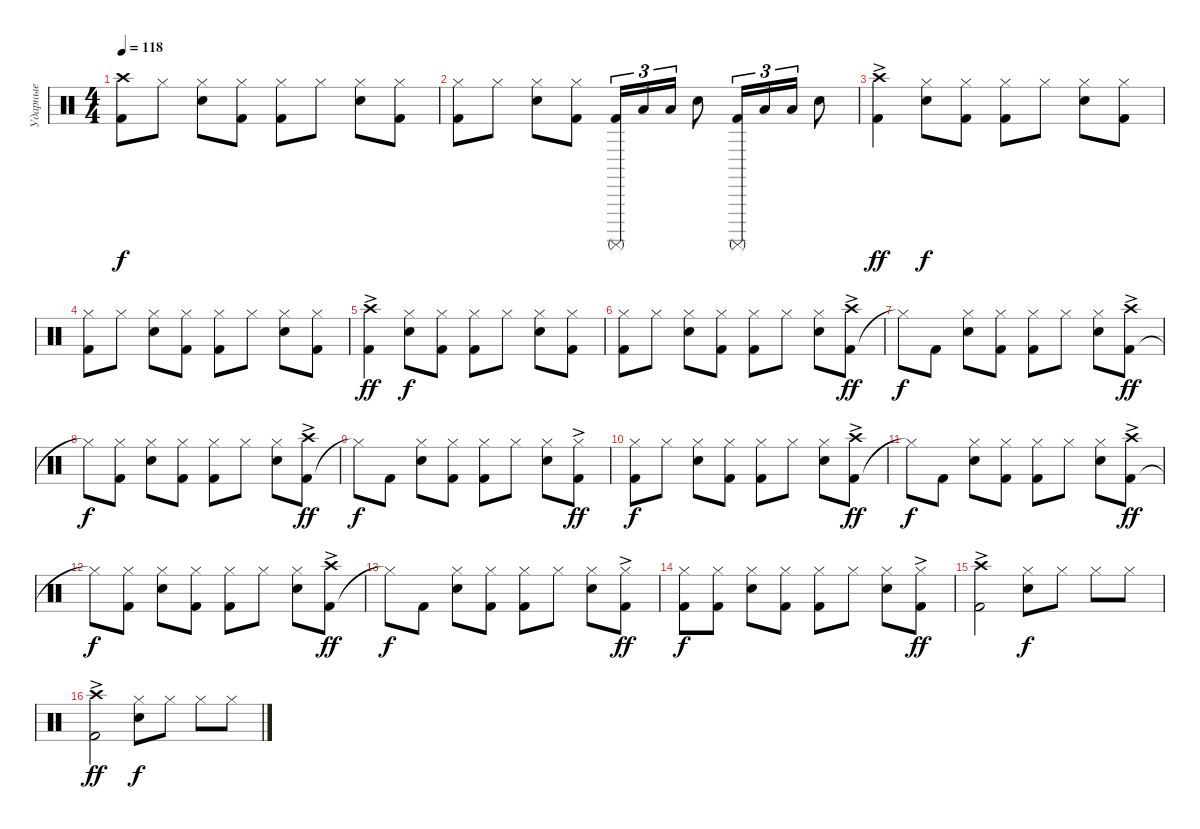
\track ("Ударные" "Ударные") {instrument percussion}
\staff
\articulation defaults
\ts (4 4)
\tempo 118
\clef neutral
\ks c
("Kick (hit) 2" "Crash high (hit)").8{dy f} "Hi-Hat (closed)".8 ("Snare (hit) 2" "Hi-Hat (closed)").8 ("Kick (hit) 2" "Hi-Hat (closed)").8 ("Kick (hit) 2" "Hi-Hat (closed)").8 "Hi-Hat (closed)".8 ("Snare (hit) 2" "Hi-Hat (closed)").8 ("Kick (hit) 2" "Hi-Hat (closed)").8 |
("Kick (hit) 2" "Hi-Hat (closed)").8 "Hi-Hat (closed)".8 ("Snare (hit) 2" "Hi-Hat (closed)").8 ("Kick (hit) 2" "Hi-Hat (closed)").8 ("Kick (hit) 2" "Surdo (mute)").16{tu (3 2)} "Low Floor Tom (hit)".16{tu (3 2)} "Low Floor Tom (hit)".16{tu (3 2)} "Snare (hit) 2".8 ("Kick (hit) 2" "Surdo (mute)").16{tu (3 2)} "Low Floor Tom (hit)".16{tu (3 2)} "Low Floor Tom (hit)".16{tu (3 2)} "Snare (hit) 2".8 |
("Kick (hit) 2" "Crash high (hit)"{ac}).4{dy ff} ("Snare (hit) 2" "Hi-Hat (closed)").8{dy f} ("Kick (hit) 2" "Hi-Hat (closed)").8 ("Kick (hit) 2" "Hi-Hat (closed)").8 "Hi-Hat (closed)".8 ("Snare (hit) 2" "Hi-Hat (closed)").8 ("Kick (hit) 2" "Hi-Hat (closed)").8 |
("Kick (hit) 2" "Hi-Hat (closed)").8 "Hi-Hat (closed)".8 ("Snare (hit) 2" "Hi-Hat (closed)").8 ("Kick (hit) 2" "Hi-Hat (closed)").8 ("Kick (hit) 2" "Hi-Hat (closed)").8 "Hi-Hat (closed)".8 ("Snare (hit) 2" "Hi-Hat (closed)").8 ("Kick (hit) 2" "Hi-Hat (closed)").8 |
("Kick (hit) 2" "Crash high (hit)"{ac}).4{dy ff} ("Snare (hit) 2" "Hi-Hat (closed)").8{dy f} ("Kick (hit) 2" "Hi-Hat (closed)").8 ("Kick (hit) 2" "Hi-Hat (closed)").8 "Hi-Hat (closed)".8 ("Snare (hit) 2" "Hi-Hat (closed)").8 ("Kick (hit) 2" "Hi-Hat (closed)").8 |
("Kick (hit) 2" "Hi-Hat (closed)").8 "Hi-Hat (closed)".8 ("Snare (hit) 2" "Hi-Hat (closed)").8 ("Kick (hit) 2" "Hi-Hat (closed)").8 ("Kick (hit) 2" "Hi-Hat (closed)").8 "Hi-Hat (closed)".8 ("Snare (hit) 2" "Hi-Hat (closed)").8 ("Kick (hit) 2" "Crash high (hit)"{ac}).8{dy ff} |
"Hi-Hat (closed)"{t}.8{dy f} "Kick (hit) 2".8 ("Snare (hit) 2" "Hi-Hat (closed)").8 ("Kick (hit) 2" "Hi-Hat (closed)").8 ("Kick (hit) 2" "Hi-Hat (closed)").8 "Hi-Hat (closed)".8 ("Snare (hit) 2" "Hi-Hat (closed)").8 ("Kick (hit) 2" "Crash high (hit)"{ac}).8{dy ff} |
"Hi-Hat (closed)"{t}.8{dy f} ("Kick (hit) 2" "Hi-Hat (closed)").8 ("Snare (hit) 2" "Hi-Hat (closed)").8 ("Kick (hit) 2" "Hi-Hat (closed)").8 ("Kick (hit) 2" "Hi-Hat (closed)").8 "Hi-Hat (closed)".8 ("Snare (hit) 2" "Hi-Hat (closed)").8 ("Kick (hit) 2" "Crash high (hit)"{ac}).8{dy ff} |
"Hi-Hat (closed)"{t}.8{dy f} "Kick (hit) 2".8 ("Snare (hit) 2" "Hi-Hat (closed)").8 ("Kick (hit) 2" "Hi-Hat (closed)").8 ("Kick (hit) 2" "Hi-Hat (closed)").8 "Hi-Hat (closed)".8 ("Snare (hit) 2" "Hi-Hat (closed)").8 ("Kick (hit) 2" "Hi-Hat (closed)"{ac}).8{dy ff} |
("Kick (hit) 2" "Hi-Hat (closed)").8{dy f} "Hi-Hat (closed)".8 ("Snare (hit) 2" "Hi-Hat (closed)").8 ("Kick (hit) 2" "Hi-Hat (closed)").8 ("Kick (hit) 2" "Hi-Hat (closed)").8 "Hi-Hat (closed)".8 ("Snare (hit) 2" "Hi-Hat (closed)").8 ("Kick (hit) 2" "Crash high (hit)"{ac}).8{dy ff} |
"Hi-Hat (closed)"{t}.8{dy f} "Kick (hit) 2".8 ("Snare (hit) 2" "Hi-Hat (closed)").8 ("Kick (hit) 2" "Hi-Hat (closed)").8 ("Kick (hit) 2" "Hi-Hat (closed)").8 "Hi-Hat (closed)".8 ("Snare (hit) 2" "Hi-Hat (closed)").8 ("Kick (hit) 2" "Crash high (hit)"{ac}).8{dy ff} |
"Hi-Hat (closed)"{t}.8{dy f} ("Kick (hit) 2" "Hi-Hat (closed)").8 ("Snare (hit) 2" "Hi-Hat (closed)").8 ("Kick (hit) 2" "Hi-Hat (closed)").8 ("Kick (hit) 2" "Hi-Hat (closed)").8 "Hi-Hat (closed)".8 ("Snare (hit) 2" "Hi-Hat (closed)").8 ("Kick (hit) 2" "Crash high (hit)"{ac}).8{dy ff} |
"Hi-Hat (closed)"{t}.8{dy f} "Kick (hit) 2".8 ("Snare (hit) 2" "Hi-Hat (closed)").8 ("Kick (hit) 2" "Hi-Hat (closed)").8 ("Kick (hit) 2" "Hi-Hat (closed)").8 "Hi-Hat (closed)".8 ("Snare (hit) 2" "Hi-Hat (closed)").8 ("Kick (hit) 2" "Hi-Hat (closed)"{ac}).8{dy ff} |
("Kick (hit) 2" "Hi-Hat (closed)").8{dy f} ("Kick (hit) 2" "Hi-Hat (closed)").8 ("Snare (hit) 2" "Hi-Hat (closed)").8 ("Kick (hit) 2" "Hi-Hat (closed)").8 ("Kick (hit) 2" "Hi-Hat (closed)").8 "Hi-Hat (closed)".8 ("Snare (hit) 2" "Hi-Hat (closed)").8 ("Kick (hit) 2" "Hi-Hat (closed)"{ac}).8{dy ff} |
("Kick (hit) 2" "Crash high (hit)"{ac}).2 ("Snare (hit) 2" "Hi-Hat (closed)").8{dy f} "Hi-Hat (closed)".8 "Hi-Hat (closed)".8 "Hi-Hat (closed)".8 |
("Kick (hit) 2" "Crash high (hit)"{ac}).2{dy ff} ("Snare (hit) 2" "Hi-Hat (closed)").8{dy f} "Hi-Hat (closed)".8 "Hi-Hat (closed)".8 "Hi-Hat (closed)".8
